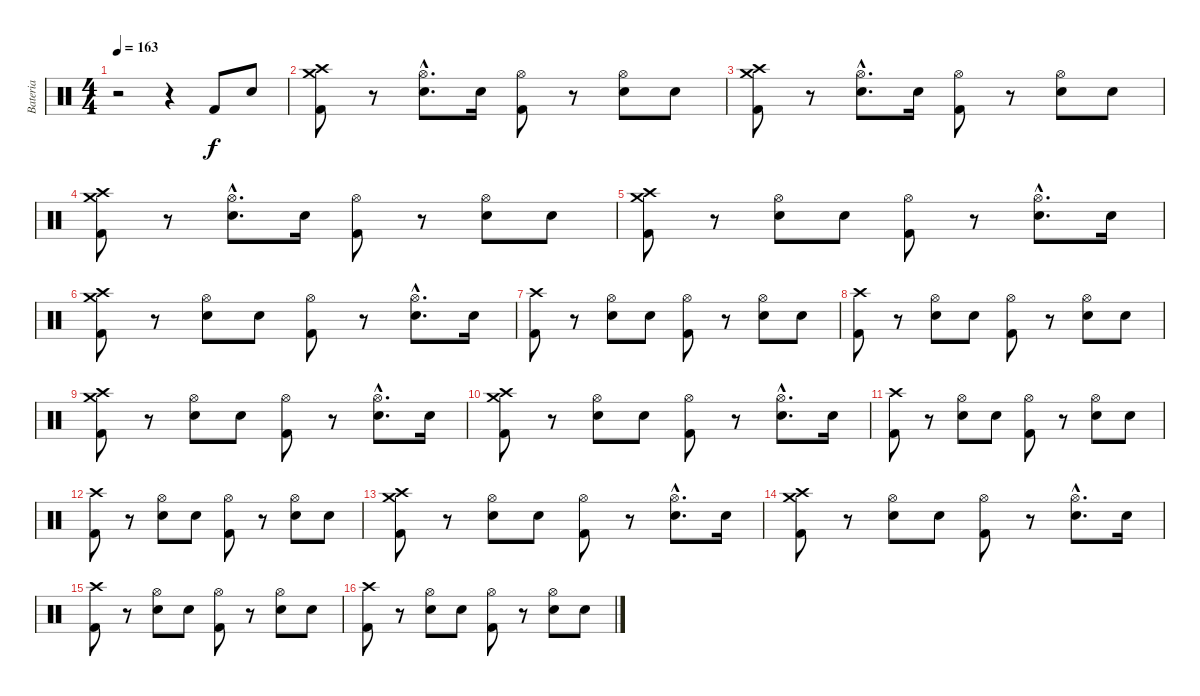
\track ("Bateria" "Bateria") {instrument percussion}
\staff {score}
\articulation defaults
\ts (4 4)
\tempo 163
\clef neutral
\ks c
r.2{dy f} r.4 "Kick (hit) 2".8 "Snare (hit) 2".8 |
("Crash high (hit)" "Crash medium (hit)" "Kick (hit) 2").8 r.8 ("Hi-Hat (open)"{hac} "Snare (hit) 2"{hac}).8{d} "Snare (hit) 2".16 ("Hi-Hat (open)" "Kick (hit) 2").8 r.8 ("Hi-Hat (open)" "Snare (hit) 2").8 "Snare (hit) 2".8 |
("Crash high (hit)" "Crash medium (hit)" "Kick (hit) 2").8 r.8 ("Hi-Hat (open)"{hac} "Snare (hit) 2"{hac}).8{d} "Snare (hit) 2".16 ("Hi-Hat (open)" "Kick (hit) 2").8 r.8 ("Hi-Hat (open)" "Snare (hit) 2").8 "Snare (hit) 2".8 |
("Crash high (hit)" "Crash medium (hit)" "Kick (hit) 2").8 r.8 ("Hi-Hat (open)"{hac} "Snare (hit) 2"{hac}).8{d} "Snare (hit) 2".16 ("Hi-Hat (open)" "Kick (hit) 2").8 r.8 ("Hi-Hat (open)" "Snare (hit) 2").8 "Snare (hit) 2".8 |
("Crash high (hit)" "Crash medium (hit)" "Kick (hit) 2").8 r.8 ("Hi-Hat (open)" "Snare (hit) 2").8 "Snare (hit) 2".8 ("Hi-Hat (open)" "Kick (hit) 2").8 r.8 ("Hi-Hat (open)"{hac} "Snare (hit) 2"{hac}).8{d} "Snare (hit) 2".16 |
("Crash high (hit)" "Crash medium (hit)" "Kick (hit) 2").8 r.8 ("Hi-Hat (open)" "Snare (hit) 2").8 "Snare (hit) 2".8 ("Hi-Hat (open)" "Kick (hit) 2").8 r.8 ("Hi-Hat (open)"{hac} "Snare (hit) 2"{hac}).8{d} "Snare (hit) 2".16 |
("Crash high (hit)" "Kick (hit) 2").8 r.8 ("Hi-Hat (open)" "Snare (hit) 2").8 "Snare (hit) 2".8 ("Hi-Hat (open)" "Kick (hit) 2").8 r.8 ("Hi-Hat (open)" "Snare (hit) 2").8 "Snare (hit) 2".8 |
("Crash high (hit)" "Kick (hit) 2").8 r.8 ("Hi-Hat (open)" "Snare (hit) 2").8 "Snare (hit) 2".8 ("Hi-Hat (open)" "Kick (hit) 2").8 r.8 ("Hi-Hat (open)" "Snare (hit) 2").8 "Snare (hit) 2".8 |
("Crash high (hit)" "Crash medium (hit)" "Kick (hit) 2").8 r.8 ("Hi-Hat (open)" "Snare (hit) 2").8 "Snare (hit) 2".8 ("Hi-Hat (open)" "Kick (hit) 2").8 r.8 ("Hi-Hat (open)"{hac} "Snare (hit) 2"{hac}).8{d} "Snare (hit) 2".16 |
("Crash high (hit)" "Crash medium (hit)" "Kick (hit) 2").8 r.8 ("Hi-Hat (open)" "Snare (hit) 2").8 "Snare (hit) 2".8 ("Hi-Hat (open)" "Kick (hit) 2").8 r.8 ("Hi-Hat (open)"{hac} "Snare (hit) 2"{hac}).8{d} "Snare (hit) 2".16 |
("Crash high (hit)" "Kick (hit) 2").8 r.8 ("Hi-Hat (open)" "Snare (hit) 2").8 "Snare (hit) 2".8 ("Hi-Hat (open)" "Kick (hit) 2").8 r.8 ("Hi-Hat (open)" "Snare (hit) 2").8 "Snare (hit) 2".8 |
("Crash high (hit)" "Kick (hit) 2").8 r.8 ("Hi-Hat (open)" "Snare (hit) 2").8 "Snare (hit) 2".8 ("Hi-Hat (open)" "Kick (hit) 2").8 r.8 ("Hi-Hat (open)" "Snare (hit) 2").8 "Snare (hit) 2".8 |
("Crash high (hit)" "Crash medium (hit)" "Kick (hit) 2").8 r.8 ("Hi-Hat (open)" "Snare (hit) 2").8 "Snare (hit) 2".8 ("Hi-Hat (open)" "Kick (hit) 2").8 r.8 ("Hi-Hat (open)"{hac} "Snare (hit) 2"{hac}).8{d} "Snare (hit) 2".16 |
("Crash high (hit)" "Crash medium (hit)" "Kick (hit) 2").8 r.8 ("Hi-Hat (open)" "Snare (hit) 2").8 "Snare (hit) 2".8 ("Hi-Hat (open)" "Kick (hit) 2").8 r.8 ("Hi-Hat (open)"{hac} "Snare (hit) 2"{hac}).8{d} "Snare (hit) 2".16 |
("Crash high (hit)" "Kick (hit) 2").8 r.8 ("Hi-Hat (open)" "Snare (hit) 2").8 "Snare (hit) 2".8 ("Hi-Hat (open)" "Kick (hit) 2").8 r.8 ("Hi-Hat (open)" "Snare (hit) 2").8 "Snare (hit) 2".8 |
("Crash high (hit)" "Kick (hit) 2").8 r.8 ("Hi-Hat (open)" "Snare (hit) 2").8 "Snare (hit) 2".8 ("Hi-Hat (open)" "Kick (hit) 2").8 r.8 ("Hi-Hat (open)" "Snare (hit) 2").8 "Snare (hit) 2".8
